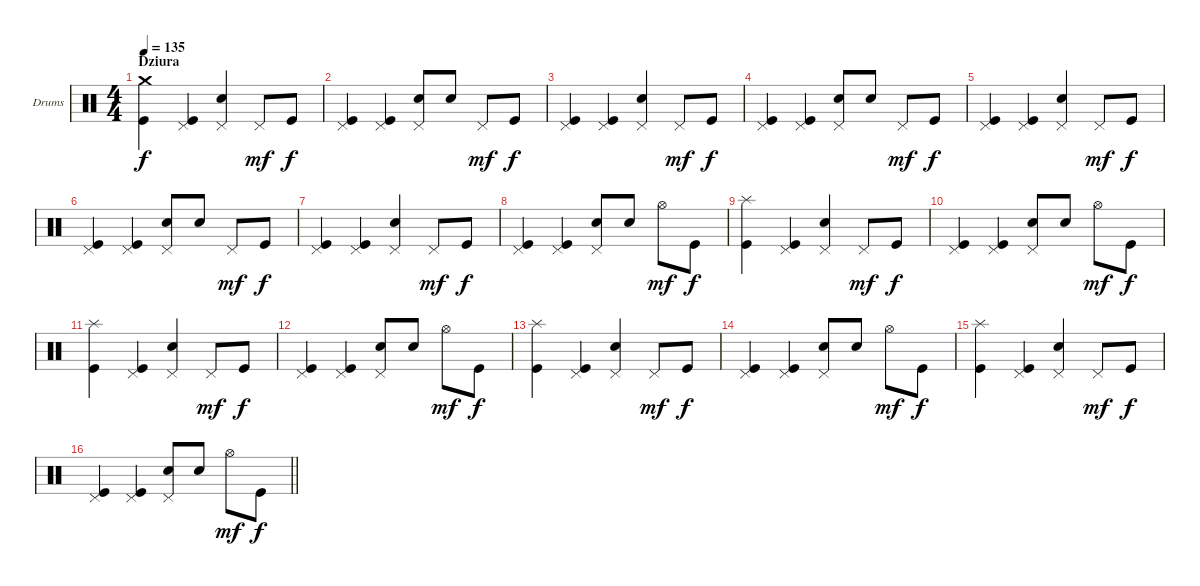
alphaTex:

\bracketExtendMode groupsimilarinstruments
\firstSystemTrackNameOrientation horizontal
\otherSystemsTrackNameOrientation horizontal
\track ("Drumkit" "Drums") {instrument percussion}
\staff {score}
\articulation defaults
\ts (4 4)
\section ("" "Dziura")
\tempo 135
\clef neutral
\ks c
("Kick (hit)" "Crash medium (hit)").4{dy f} ("Kick (hit)" "Pedal Hi-Hat (hit)").4 ("Snare (hit) 2" "Pedal Hi-Hat (hit)").4 "Pedal Hi-Hat (hit)".8{dy mf} "Kick (hit)".8{dy f} |
("Kick (hit)" "Pedal Hi-Hat (hit)").4 ("Kick (hit)" "Pedal Hi-Hat (hit)").4 ("Snare (hit) 2" "Pedal Hi-Hat (hit)").8 "Snare (hit) 2".8 "Pedal Hi-Hat (hit)".8{dy mf} "Kick (hit)".8{dy f} |
("Kick (hit)" "Pedal Hi-Hat (hit)").4 ("Kick (hit)" "Pedal Hi-Hat (hit)").4 ("Snare (hit) 2" "Pedal Hi-Hat (hit)").4 "Pedal Hi-Hat (hit)".8{dy mf} "Kick (hit)".8{dy f} |
("Kick (hit)" "Pedal Hi-Hat (hit)").4 ("Kick (hit)" "Pedal Hi-Hat (hit)").4 ("Snare (hit) 2" "Pedal Hi-Hat (hit)").8 "Snare (hit) 2".8 "Pedal Hi-Hat (hit)".8{dy mf} "Kick (hit)".8{dy f} |
("Kick (hit)" "Pedal Hi-Hat (hit)").4 ("Kick (hit)" "Pedal Hi-Hat (hit)").4 ("Snare (hit) 2" "Pedal Hi-Hat (hit)").4 "Pedal Hi-Hat (hit)".8{dy mf} "Kick (hit)".8{dy f} |
("Kick (hit)" "Pedal Hi-Hat (hit)").4 ("Kick (hit)" "Pedal Hi-Hat (hit)").4 ("Snare (hit) 2" "Pedal Hi-Hat (hit)").8 "Snare (hit) 2".8 "Pedal Hi-Hat (hit)".8{dy mf} "Kick (hit)".8{dy f} |
("Kick (hit)" "Pedal Hi-Hat (hit)").4 ("Kick (hit)" "Pedal Hi-Hat (hit)").4 ("Snare (hit) 2" "Pedal Hi-Hat (hit)").4 "Pedal Hi-Hat (hit)".8{dy mf} "Kick (hit)".8{dy f} |
("Kick (hit)" "Pedal Hi-Hat (hit)").4 ("Kick (hit)" "Pedal Hi-Hat (hit)").4 ("Snare (hit) 2" "Pedal Hi-Hat (hit)").8 "Snare (hit) 2".8 "Hi-Hat (open)".8{dy mf} "Kick (hit)".8{dy f} |
("Kick (hit)" "Splash (hit)").4 ("Kick (hit)" "Pedal Hi-Hat (hit)").4 ("Snare (hit) 2" "Pedal Hi-Hat (hit)").4 "Pedal Hi-Hat (hit)".8{dy mf} "Kick (hit)".8{dy f} |
("Kick (hit)" "Pedal Hi-Hat (hit)").4 ("Kick (hit)" "Pedal Hi-Hat (hit)").4 ("Snare (hit) 2" "Pedal Hi-Hat (hit)").8 "Snare (hit) 2".8 "Hi-Hat (open)".8{dy mf} "Kick (hit)".8{dy f} |
("Kick (hit)" "Splash (hit)").4 ("Kick (hit)" "Pedal Hi-Hat (hit)").4 ("Snare (hit) 2" "Pedal Hi-Hat (hit)").4 "Pedal Hi-Hat (hit)".8{dy mf} "Kick (hit)".8{dy f} |
("Kick (hit)" "Pedal Hi-Hat (hit)").4 ("Kick (hit)" "Pedal Hi-Hat (hit)").4 ("Snare (hit) 2" "Pedal Hi-Hat (hit)").8 "Snare (hit) 2".8 "Hi-Hat (open)".8{dy mf} "Kick (hit)".8{dy f} |
("Kick (hit)" "Splash (hit)").4 ("Kick (hit)" "Pedal Hi-Hat (hit)").4 ("Snare (hit) 2" "Pedal Hi-Hat (hit)").4 "Pedal Hi-Hat (hit)".8{dy mf} "Kick (hit)".8{dy f} |
("Kick (hit)" "Pedal Hi-Hat (hit)").4 ("Kick (hit)" "Pedal Hi-Hat (hit)").4 ("Snare (hit) 2" "Pedal Hi-Hat (hit)").8 "Snare (hit) 2".8 "Hi-Hat (open)".8{dy mf} "Kick (hit)".8{dy f} |
("Kick (hit)" "Splash (hit)").4 ("Kick (hit)" "Pedal Hi-Hat (hit)").4 ("Snare (hit) 2" "Pedal Hi-Hat (hit)").4 "Pedal Hi-Hat (hit)".8{dy mf} "Kick (hit)".8{dy f} |
\barLineRight lightlight
("Kick (hit)" "Pedal Hi-Hat (hit)").4 ("Kick (hit)" "Pedal Hi-Hat (hit)").4 ("Snare (hit) 2" "Pedal Hi-Hat (hit)").8 "Snare (hit) 2".8 "Hi-Hat (open)".8{dy mf} "Kick (hit)".8{dy f}
